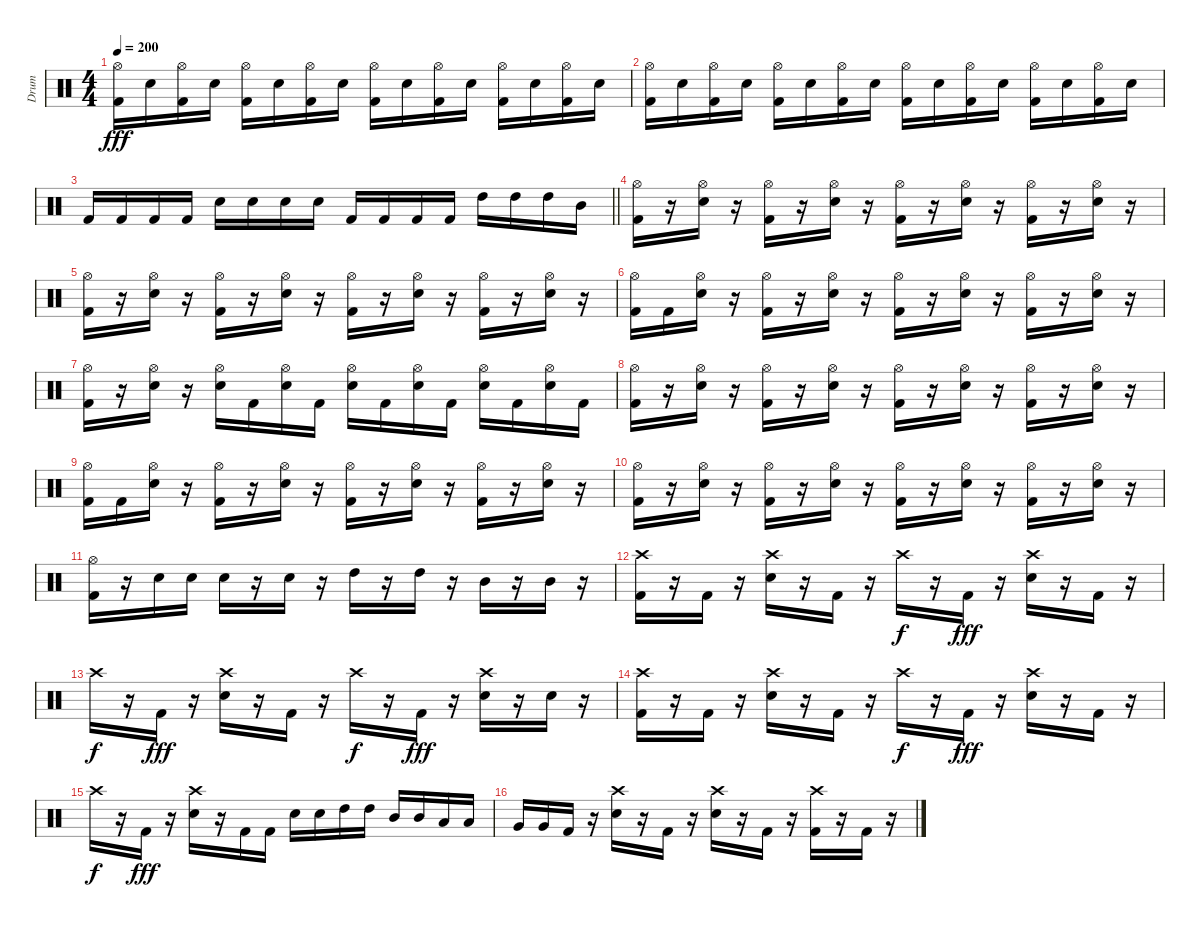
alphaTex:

\track ("Drum" "Drum") {instrument percussion}
\staff {score}
\articulation defaults
\ts (4 4)
\tempo 200
\clef neutral
\ks c
("Hi-Hat (open)" "Kick (hit) 2").16{dy fff} "Electric Snare (hit)".16 ("Hi-Hat (open)" "Kick (hit) 2").16 "Electric Snare (hit)".16 ("Hi-Hat (open)" "Kick (hit) 2").16 "Electric Snare (hit)".16 ("Hi-Hat (open)" "Kick (hit) 2").16 "Electric Snare (hit)".16 ("Hi-Hat (open)" "Kick (hit) 2").16 "Electric Snare (hit)".16 ("Hi-Hat (open)" "Kick (hit) 2").16 "Electric Snare (hit)".16 ("Hi-Hat (open)" "Kick (hit) 2").16 "Electric Snare (hit)".16 ("Hi-Hat (open)" "Kick (hit) 2").16 "Electric Snare (hit)".16 |
("Hi-Hat (open)" "Kick (hit) 2").16 "Electric Snare (hit)".16 ("Hi-Hat (open)" "Kick (hit) 2").16 "Electric Snare (hit)".16 ("Hi-Hat (open)" "Kick (hit) 2").16 "Electric Snare (hit)".16 ("Hi-Hat (open)" "Kick (hit) 2").16 "Electric Snare (hit)".16 ("Hi-Hat (open)" "Kick (hit) 2").16 "Electric Snare (hit)".16 ("Hi-Hat (open)" "Kick (hit) 2").16 "Electric Snare (hit)".16 ("Hi-Hat (open)" "Kick (hit) 2").16 "Electric Snare (hit)".16 ("Hi-Hat (open)" "Kick (hit) 2").16 "Electric Snare (hit)".16 |
\barLineRight lightlight "Kick (hit) 2".16 "Kick (hit) 2".16 "Kick (hit) 2".16 "Kick (hit) 2".16 "Electric Snare (hit)".16 "Electric Snare (hit)".16 "Electric Snare (hit)".16 "Electric Snare (hit)".16 "Kick (hit) 2".16 "Kick (hit) 2".16 "Kick (hit) 2".16 "Kick (hit) 2".16 "High Tom (hit)".16 "High Tom (hit)".16 "High Tom (hit)".16 "Mid Tom (hit)".16
|
\section ("" "")
("Hi-Hat (open)" "Kick (hit) 2").16 r.16 ("Hi-Hat (open)" "Electric Snare (hit)").16 r.16 ("Hi-Hat (open)" "Kick (hit) 2").16 r.16 ("Hi-Hat (open)" "Electric Snare (hit)").16 r.16 ("Hi-Hat (open)" "Kick (hit) 2").16 r.16 ("Hi-Hat (open)" "Electric Snare (hit)").16 r.16 ("Hi-Hat (open)" "Kick (hit) 2").16 r.16 ("Hi-Hat (open)" "Electric Snare (hit)").16 r.16 |
("Hi-Hat (open)" "Kick (hit) 2").16 r.16 ("Hi-Hat (open)" "Electric Snare (hit)").16 r.16 ("Hi-Hat (open)" "Kick (hit) 2").16 r.16 ("Hi-Hat (open)" "Electric Snare (hit)").16 r.16 ("Hi-Hat (open)" "Kick (hit) 2").16 r.16 ("Hi-Hat (open)" "Electric Snare (hit)").16 r.16 ("Hi-Hat (open)" "Kick (hit) 2").16 r.16 ("Hi-Hat (open)" "Electric Snare (hit)").16 r.16 |
("Hi-Hat (open)" "Kick (hit) 2").16 "Kick (hit) 2".16 ("Hi-Hat (open)" "Electric Snare (hit)").16 r.16 ("Hi-Hat (open)" "Kick (hit) 2").16 r.16 ("Hi-Hat (open)" "Electric Snare (hit)").16 r.16 ("Hi-Hat (open)" "Kick (hit) 2").16 r.16 ("Hi-Hat (open)" "Electric Snare (hit)").16 r.16 ("Hi-Hat (open)" "Kick (hit) 2").16 r.16 ("Hi-Hat (open)" "Electric Snare (hit)").16 r.16 |
("Hi-Hat (open)" "Kick (hit) 2").16 r.16 ("Hi-Hat (open)" "Electric Snare (hit)").16 r.16 ("Hi-Hat (open)" "Electric Snare (hit)").16 "Kick (hit) 2".16 ("Hi-Hat (open)" "Electric Snare (hit)").16 "Kick (hit) 2".16 ("Hi-Hat (open)" "Electric Snare (hit)").16 "Kick (hit) 2".16 ("Hi-Hat (open)" "Electric Snare (hit)").16 "Kick (hit) 2".16 ("Hi-Hat (open)" "Electric Snare (hit)").16 "Kick (hit) 2".16 ("Hi-Hat (open)" "Electric Snare (hit)").16 "Kick (hit) 2".16 |
("Hi-Hat (open)" "Kick (hit) 2").16 r.16 ("Hi-Hat (open)" "Electric Snare (hit)").16 r.16 ("Hi-Hat (open)" "Kick (hit) 2").16 r.16 ("Hi-Hat (open)" "Electric Snare (hit)").16 r.16 ("Hi-Hat (open)" "Kick (hit) 2").16 r.16 ("Hi-Hat (open)" "Electric Snare (hit)").16 r.16 ("Hi-Hat (open)" "Kick (hit) 2").16 r.16 ("Hi-Hat (open)" "Electric Snare (hit)").16 r.16 |
("Hi-Hat (open)" "Kick (hit) 2").16 "Kick (hit) 2".16 ("Hi-Hat (open)" "Electric Snare (hit)").16 r.16 ("Hi-Hat (open)" "Kick (hit) 2").16 r.16 ("Hi-Hat (open)" "Electric Snare (hit)").16 r.16 ("Hi-Hat (open)" "Kick (hit) 2").16 r.16 ("Hi-Hat (open)" "Electric Snare (hit)").16 r.16 ("Hi-Hat (open)" "Kick (hit) 2").16 r.16 ("Hi-Hat (open)" "Electric Snare (hit)").16 r.16 |
("Hi-Hat (open)" "Kick (hit) 2").16 r.16 ("Hi-Hat (open)" "Electric Snare (hit)").16 r.16 ("Hi-Hat (open)" "Kick (hit) 2").16 r.16 ("Hi-Hat (open)" "Electric Snare (hit)").16 r.16 ("Hi-Hat (open)" "Kick (hit) 2").16 r.16 ("Hi-Hat (open)" "Electric Snare (hit)").16 r.16 ("Hi-Hat (open)" "Kick (hit) 2").16 r.16 ("Hi-Hat (open)" "Electric Snare (hit)").16 r.16 |
("Hi-Hat (open)" "Kick (hit) 2").16 r.16 "Electric Snare (hit)".16 "Electric Snare (hit)".16 "Electric Snare (hit)".16 r.16 "Electric Snare (hit)".16 r.16 "High Tom (hit)".16 r.16 "High Tom (hit)".16 r.16 "Mid Tom (hit)".16 r.16 "Mid Tom (hit)".16 r.16 |
("Crash high (hit)" "Kick (hit) 2").16 r.16 "Kick (hit) 2".16 r.16 ("Crash high (hit)" "Electric Snare (hit)").16 r.16 "Kick (hit) 2".16 r.16 "Crash high (hit)".16{dy f} r.16 "Kick (hit) 2".16{dy fff} r.16 ("Crash high (hit)" "Electric Snare (hit)").16 r.16 "Kick (hit) 2".16 r.16 |
"Crash high (hit)".16{dy f} r.16 "Kick (hit) 2".16{dy fff} r.16 ("Crash high (hit)" "Electric Snare (hit)").16 r.16 "Kick (hit) 2".16 r.16 "Crash high (hit)".16{dy f} r.16 "Kick (hit) 2".16{dy fff} r.16 ("Crash high (hit)" "Electric Snare (hit)").16 r.16 "Electric Snare (hit)".16 r.16 |
("Crash high (hit)" "Kick (hit) 2").16 r.16 "Kick (hit) 2".16 r.16 ("Crash high (hit)" "Electric Snare (hit)").16 r.16 "Kick (hit) 2".16 r.16 "Crash high (hit)".16{dy f} r.16 "Kick (hit) 2".16{dy fff} r.16 ("Crash high (hit)" "Electric Snare (hit)").16 r.16 "Kick (hit) 2".16 r.16 |
"Crash high (hit)".16{dy f} r.16 "Kick (hit) 2".16{dy fff} r.16 ("Crash high (hit)" "Electric Snare (hit)").16 r.16 "Kick (hit) 2".16 "Kick (hit) 2".16 "Electric Snare (hit)".16 "Electric Snare (hit)".16 "High Tom (hit)".16 "High Tom (hit)".16 "Mid Tom (hit)".16 "Mid Tom (hit)".16 "Low Tom (hit)".16 "Low Tom (hit)".16 |
"Very Low Tom (hit)".16 "Very Low Tom (hit)".16 "Kick (hit) 2".16 r.16 ("Crash high (hit)" "Electric Snare (hit)").16 r.16 "Kick (hit) 2".16 r.16 ("Crash high (hit)" "Electric Snare (hit)").16 r.16 "Kick (hit) 2".16 r.16 ("Crash high (hit)" "Kick (hit) 2").16 r.16 "Kick (hit) 2".16 r.16
